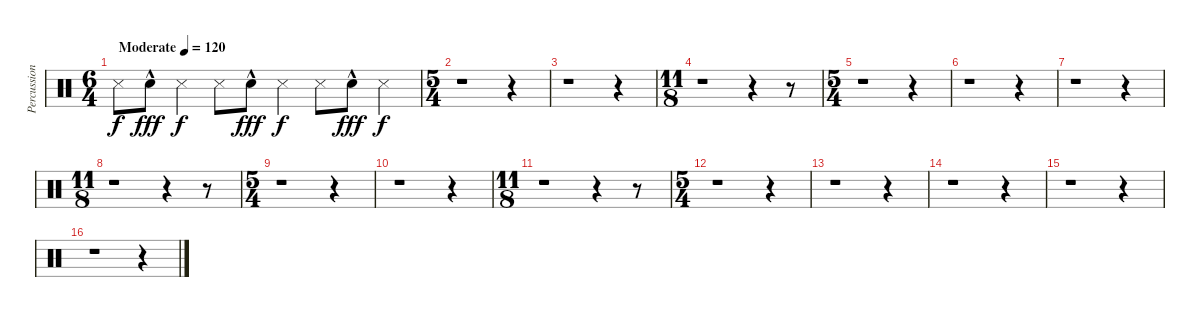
\track ("Percussion" "Percussion") {instrument percussion}
\staff {score}
\articulation defaults
\ts (6 4)
\tempo (120 "Moderate")
\clef neutral
\ks c "Snare (side stick) 3".8{dy f} "Electric Snare (hit)"{hac}.8{dy fff} "Snare (side stick) 3".4{dy f} "Snare (side stick) 3".8 "Electric Snare (hit)"{hac}.8{dy fff} "Snare (side stick) 3".4{dy f} "Snare (side stick) 3".8 "Electric Snare (hit)"{hac}.8{dy fff} "Snare (side stick) 3".4{dy f}
|
\ts (5 4)
r.1 r.4 |
r.1 r.4 |
\ts (11 8)
r.1 r.4 r.8 |
\ts (5 4)
r.1 r.4 |
r.1 r.4 |
r.1 r.4 |
\ts (11 8)
r.1 r.4 r.8 |
\ts (5 4)
r.1 r.4 |
r.1 r.4 |
\ts (11 8)
r.1 r.4 r.8 |
\ts (5 4)
r.1 r.4 |
r.1 r.4 |
r.1 r.4 |
r.1 r.4 |
r.1 r.4
